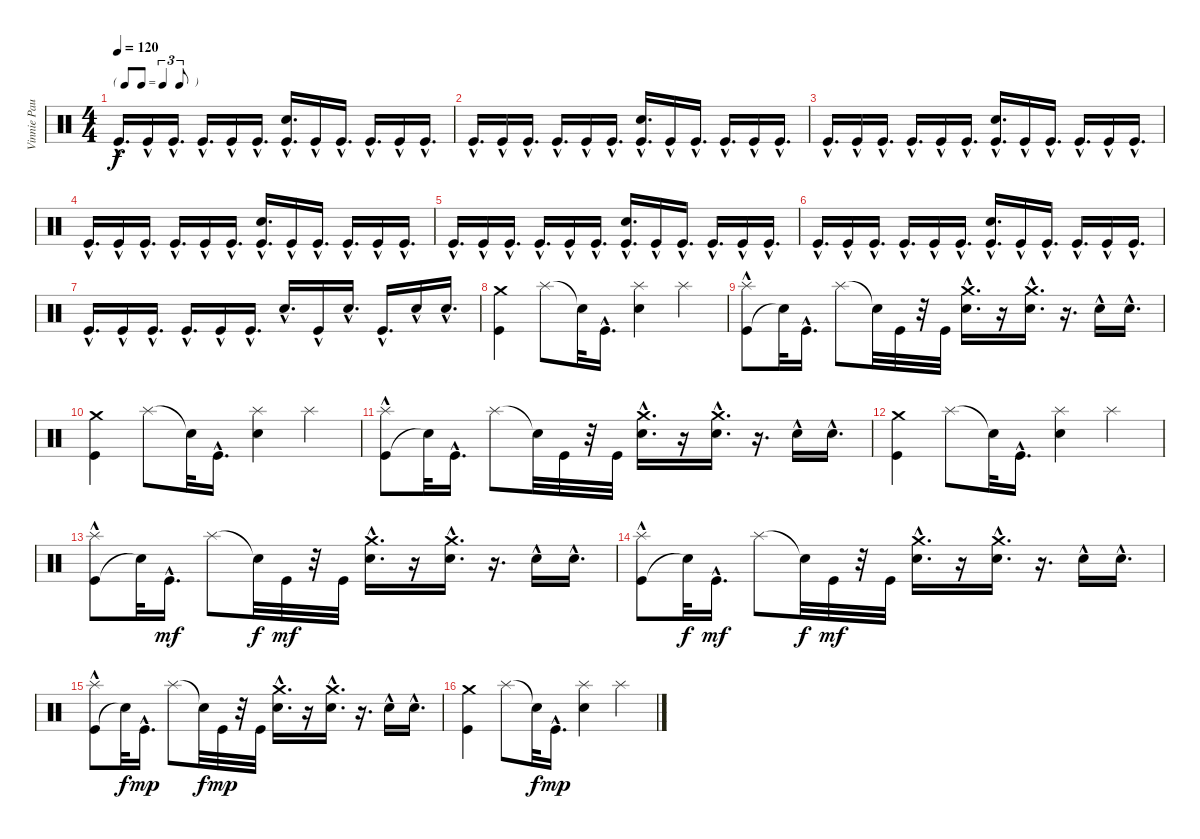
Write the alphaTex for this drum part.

\track ("Vinnie Paul (Drums)" "Vinnie Pau") {instrument percussion}
\staff {score}
\articulation defaults
\ts (4 4)
\tf triplet8th
\tempo 120
\clef neutral
\ks c "Kick (hit)"{hac}.16{d dy f} "Kick (hit)"{hac}.16 "Kick (hit)"{hac}.16{d} "Kick (hit)"{hac}.16{d} "Kick (hit)"{hac}.16 "Kick (hit)"{hac}.16{d}
("Electric Snare (hit)" "Kick (hit)"{hac}).16{d} "Kick (hit)"{hac}.16 "Kick (hit)"{hac}.16{d} "Kick (hit)"{hac}.16{d} "Kick (hit)"{hac}.16 "Kick (hit)"{hac}.16{d} |
"Kick (hit)"{hac}.16{d} "Kick (hit)"{hac}.16 "Kick (hit)"{hac}.16{d} "Kick (hit)"{hac}.16{d} "Kick (hit)"{hac}.16 "Kick (hit)"{hac}.16{d} ("Electric Snare (hit)" "Kick (hit)"{hac}).16{d} "Kick (hit)"{hac}.16 "Kick (hit)"{hac}.16{d} "Kick (hit)"{hac}.16{d} "Kick (hit)"{hac}.16 "Kick (hit)"{hac}.16{d} |
"Kick (hit)"{hac}.16{d} "Kick (hit)"{hac}.16 "Kick (hit)"{hac}.16{d} "Kick (hit)"{hac}.16{d} "Kick (hit)"{hac}.16 "Kick (hit)"{hac}.16{d} ("Electric Snare (hit)" "Kick (hit)"{hac}).16{d} "Kick (hit)"{hac}.16 "Kick (hit)"{hac}.16{d} "Kick (hit)"{hac}.16{d} "Kick (hit)"{hac}.16 "Kick (hit)"{hac}.16{d} |
"Kick (hit)"{hac}.16{d} "Kick (hit)"{hac}.16 "Kick (hit)"{hac}.16{d} "Kick (hit)"{hac}.16{d} "Kick (hit)"{hac}.16 "Kick (hit)"{hac}.16{d} ("Electric Snare (hit)" "Kick (hit)"{hac}).16{d} "Kick (hit)"{hac}.16 "Kick (hit)"{hac}.16{d} "Kick (hit)"{hac}.16{d} "Kick (hit)"{hac}.16 "Kick (hit)"{hac}.16{d} |
"Kick (hit)"{hac}.16{d} "Kick (hit)"{hac}.16 "Kick (hit)"{hac}.16{d} "Kick (hit)"{hac}.16{d} "Kick (hit)"{hac}.16 "Kick (hit)"{hac}.16{d} ("Electric Snare (hit)" "Kick (hit)"{hac}).16{d} "Kick (hit)"{hac}.16 "Kick (hit)"{hac}.16{d} "Kick (hit)"{hac}.16{d} "Kick (hit)"{hac}.16 "Kick (hit)"{hac}.16{d} |
"Kick (hit)"{hac}.16{d} "Kick (hit)"{hac}.16 "Kick (hit)"{hac}.16{d} "Kick (hit)"{hac}.16{d} "Kick (hit)"{hac}.16 "Kick (hit)"{hac}.16{d} ("Electric Snare (hit)" "Kick (hit)"{hac}).16{d} "Kick (hit)"{hac}.16 "Kick (hit)"{hac}.16{d} "Kick (hit)"{hac}.16{d} "Kick (hit)"{hac}.16 "Kick (hit)"{hac}.16{d} |
"Kick (hit)"{hac}.16{d} "Kick (hit)"{hac}.16 "Kick (hit)"{hac}.16{d} "Kick (hit)"{hac}.16{d} "Kick (hit)"{hac}.16 "Kick (hit)"{hac}.16{d} "Electric Snare (hit)"{hac}.16{d} "Kick (hit)"{hac}.16 "Electric Snare (hit)"{hac}.16{d} "Kick (hit)"{hac}.16{d} "Electric Snare (hit)"{hac}.16 "Electric Snare (hit)"{hac}.16{d} |
("Kick (hit)" "Crash medium (hit)").4 "Splash (hit)".8 "Snare (hit)"{t}.32 "Kick (hit)"{hac}.16{d} ("Electric Snare (hit)" "Splash (hit)").4 "Splash (hit)".4 |
("Kick (hit)"{hac} "Splash (hit)").8 "Snare (hit)"{t}.32 "Kick (hit)"{hac}.16{d} "Splash (hit)".8 "Snare (hit)"{t}.32 "Kick (hit)".32 r.32 "Kick (hit)".32 ("Electric Snare (hit)"{hac} "Crash medium (hit)"{hac}).16{d} r.16 ("Crash medium (hit)"{hac} "Electric Snare (hit)"{hac}).16{d} r.16{d} "Electric Snare (hit)"{hac}.16 "Electric Snare (hit)"{hac}.16{d} |
("Kick (hit)" "Crash medium (hit)").4 "Splash (hit)".8 "Snare (hit)"{t}.32 "Kick (hit)"{hac}.16{d} ("Electric Snare (hit)" "Splash (hit)").4 "Splash (hit)".4 |
("Kick (hit)"{hac} "Splash (hit)").8 "Snare (hit)"{t}.32 "Kick (hit)"{hac}.16{d} "Splash (hit)".8 "Snare (hit)"{t}.32 "Kick (hit)".32 r.32 "Kick (hit)".32 ("Electric Snare (hit)"{hac} "Crash medium (hit)"{hac}).16{d} r.16 ("Crash medium (hit)"{hac} "Electric Snare (hit)"{hac}).16{d} r.16{d} "Electric Snare (hit)"{hac}.16 "Electric Snare (hit)"{hac}.16{d} |
("Kick (hit)" "Crash medium (hit)").4 "Splash (hit)".8 "Snare (hit)"{t}.32 "Kick (hit)"{hac}.16{d} ("Electric Snare (hit)" "Splash (hit)").4 "Splash (hit)".4 |
("Kick (hit)"{hac} "Splash (hit)").8 "Snare (hit)"{t}.32 "Kick (hit)"{hac}.16{d dy mf} "Splash (hit)".8 "Snare (hit)"{t}.32{dy f} "Kick (hit)".32{dy mf} r.32 "Kick (hit)".32 ("Electric Snare (hit)"{hac} "Crash medium (hit)"{hac}).16{d} r.16 ("Crash medium (hit)"{hac} "Electric Snare (hit)"{hac}).16{d} r.16{d} "Electric Snare (hit)"{hac}.16 "Electric Snare (hit)"{hac}.16{d} |
("Kick (hit)"{hac} "Splash (hit)").8 "Snare (hit)"{t}.32{dy f} "Kick (hit)"{hac}.16{d dy mf} "Splash (hit)".8 "Snare (hit)"{t}.32{dy f} "Kick (hit)".32{dy mf} r.32 "Kick (hit)".32 ("Electric Snare (hit)"{hac} "Crash medium (hit)"{hac}).16{d} r.16 ("Crash medium (hit)"{hac} "Electric Snare (hit)"{hac}).16{d} r.16{d} "Electric Snare (hit)"{hac}.16 "Electric Snare (hit)"{hac}.16{d} |
("Kick (hit)"{hac} "Splash (hit)").8 "Snare (hit)"{t}.32{dy f} "Kick (hit)"{hac}.16{d dy mp} "Splash (hit)".8 "Snare (hit)"{t}.32{dy f} "Kick (hit)".32{dy mp} r.32 "Kick (hit)".32 ("Electric Snare (hit)"{hac} "Crash medium (hit)"{hac}).16{d} r.16 ("Crash medium (hit)"{hac} "Electric Snare (hit)"{hac}).16{d} r.16{d} "Electric Snare (hit)"{hac}.16 "Electric Snare (hit)"{hac}.16{d} |
("Kick (hit)" "Crash medium (hit)").4 "Splash (hit)".8 "Snare (hit)"{t}.32{dy f} "Kick (hit)"{hac}.16{d dy mp} ("Electric Snare (hit)" "Splash (hit)").4 "Splash (hit)".4
